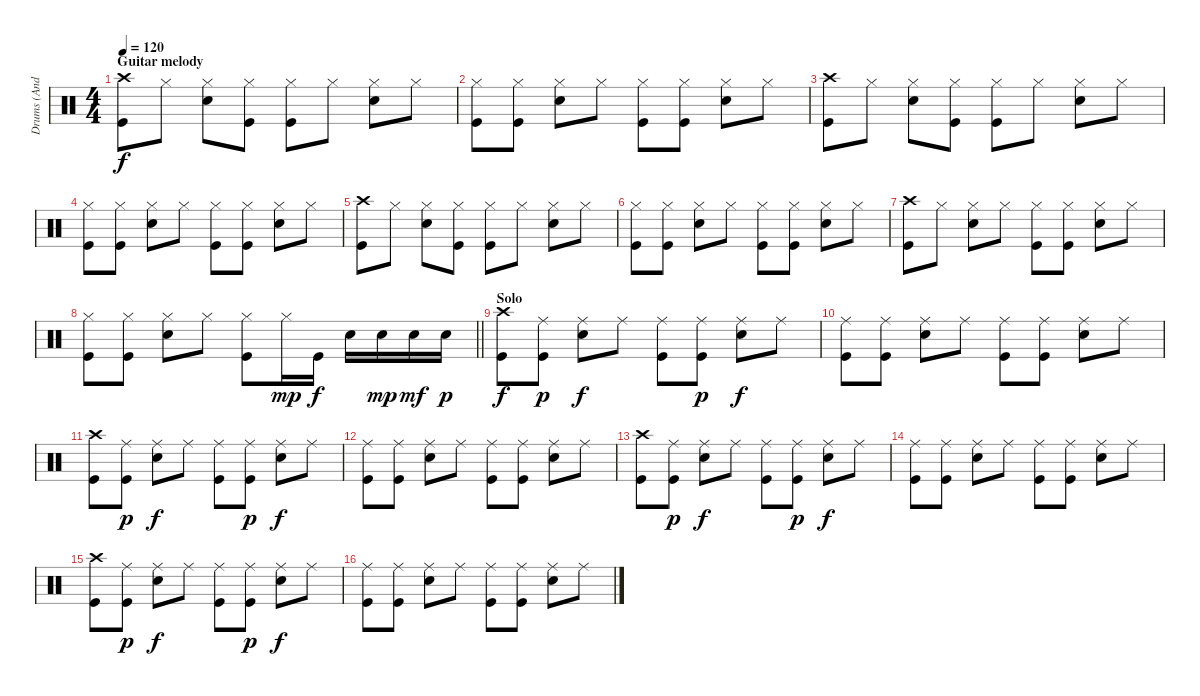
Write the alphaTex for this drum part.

\track ("Drums (Andy Parker)" "Drums (And") {instrument percussion}
\staff {score}
\articulation defaults
\ts (4 4)
\section ("" "Guitar melody")
\tempo 120
\clef neutral
\ks c
("Crash high (hit)" "Kick (hit)").8{dy f} "Hi-Hat (closed)".8 ("Hi-Hat (closed)" "Electric Snare (hit)").8 ("Hi-Hat (closed)" "Kick (hit)").8 ("Hi-Hat (closed)" "Kick (hit)").8 "Hi-Hat (closed)".8 ("Hi-Hat (closed)" "Electric Snare (hit)").8 "Hi-Hat (closed)".8 |
("Hi-Hat (closed)" "Kick (hit)").8 ("Hi-Hat (closed)" "Kick (hit)").8 ("Hi-Hat (closed)" "Electric Snare (hit)").8 "Hi-Hat (closed)".8 ("Hi-Hat (closed)" "Kick (hit)").8 ("Hi-Hat (closed)" "Kick (hit)").8 ("Hi-Hat (closed)" "Electric Snare (hit)").8 "Hi-Hat (closed)".8 |
("Crash high (hit)" "Kick (hit)").8 "Hi-Hat (closed)".8 ("Hi-Hat (closed)" "Electric Snare (hit)").8 ("Hi-Hat (closed)" "Kick (hit)").8 ("Hi-Hat (closed)" "Kick (hit)").8 "Hi-Hat (closed)".8 ("Hi-Hat (closed)" "Electric Snare (hit)").8 "Hi-Hat (closed)".8 |
("Hi-Hat (closed)" "Kick (hit)").8 ("Hi-Hat (closed)" "Kick (hit)").8 ("Hi-Hat (closed)" "Electric Snare (hit)").8 "Hi-Hat (closed)".8 ("Hi-Hat (closed)" "Kick (hit)").8 ("Hi-Hat (closed)" "Kick (hit)").8 ("Hi-Hat (closed)" "Electric Snare (hit)").8 "Hi-Hat (closed)".8 |
("Crash high (hit)" "Kick (hit)").8 "Hi-Hat (closed)".8 ("Hi-Hat (closed)" "Electric Snare (hit)").8 ("Hi-Hat (closed)" "Kick (hit)").8 ("Hi-Hat (closed)" "Kick (hit)").8 "Hi-Hat (closed)".8 ("Hi-Hat (closed)" "Electric Snare (hit)").8 "Hi-Hat (closed)".8 |
("Hi-Hat (closed)" "Kick (hit)").8 ("Hi-Hat (closed)" "Kick (hit)").8 ("Hi-Hat (closed)" "Electric Snare (hit)").8 "Hi-Hat (closed)".8 ("Hi-Hat (closed)" "Kick (hit)").8 ("Hi-Hat (closed)" "Kick (hit)").8 ("Hi-Hat (closed)" "Electric Snare (hit)").8 "Hi-Hat (closed)".8 |
("Crash high (hit)" "Kick (hit)").8 "Hi-Hat (closed)".8 ("Hi-Hat (closed)" "Electric Snare (hit)").8 "Hi-Hat (closed)".8 ("Hi-Hat (closed)" "Kick (hit)").8 ("Hi-Hat (closed)" "Kick (hit)").8 ("Hi-Hat (closed)" "Electric Snare (hit)").8 "Hi-Hat (closed)".8 |
\barLineRight lightlight
("Hi-Hat (closed)" "Kick (hit)").8 ("Hi-Hat (closed)" "Kick (hit)").8 ("Hi-Hat (closed)" "Electric Snare (hit)").8 "Hi-Hat (closed)".8 ("Hi-Hat (closed)" "Kick (hit)").8 "Hi-Hat (closed)".16{dy mp} "Kick (hit)".16{dy f} "Electric Snare (hit)".16 "Electric Snare (hit)".16{dy mp} "Electric Snare (hit)".16{dy mf} "Electric Snare (hit)".16{dy p} |
\section ("" "Solo")
("Crash high (hit)" "Kick (hit)").8{dy f} ("Ride (middle)" "Kick (hit)").8{dy p} ("Ride (middle)" "Electric Snare (hit)").8{dy f} "Ride (middle)".8 ("Ride (middle)" "Kick (hit)").8 ("Ride (middle)" "Kick (hit)").8{dy p} ("Ride (middle)" "Electric Snare (hit)").8{dy f} "Ride (middle)".8 |
("Ride (middle)" "Kick (hit)").8 ("Ride (middle)" "Kick (hit)").8 ("Ride (middle)" "Electric Snare (hit)").8 "Ride (middle)".8 ("Ride (middle)" "Kick (hit)").8 ("Ride (middle)" "Kick (hit)").8 ("Ride (middle)" "Electric Snare (hit)").8 "Ride (middle)".8 |
("Crash high (hit)" "Kick (hit)").8 ("Ride (middle)" "Kick (hit)").8{dy p} ("Ride (middle)" "Electric Snare (hit)").8{dy f} "Ride (middle)".8 ("Ride (middle)" "Kick (hit)").8 ("Ride (middle)" "Kick (hit)").8{dy p} ("Ride (middle)" "Electric Snare (hit)").8{dy f} "Ride (middle)".8 |
("Ride (middle)" "Kick (hit)").8 ("Ride (middle)" "Kick (hit)").8 ("Ride (middle)" "Electric Snare (hit)").8 "Ride (middle)".8 ("Ride (middle)" "Kick (hit)").8 ("Ride (middle)" "Kick (hit)").8 ("Ride (middle)" "Electric Snare (hit)").8 "Ride (middle)".8 |
("Crash high (hit)" "Kick (hit)").8 ("Ride (middle)" "Kick (hit)").8{dy p} ("Ride (middle)" "Electric Snare (hit)").8{dy f} "Ride (middle)".8 ("Ride (middle)" "Kick (hit)").8 ("Ride (middle)" "Kick (hit)").8{dy p} ("Ride (middle)" "Electric Snare (hit)").8{dy f} "Ride (middle)".8 |
("Ride (middle)" "Kick (hit)").8 ("Ride (middle)" "Kick (hit)").8 ("Ride (middle)" "Electric Snare (hit)").8 "Ride (middle)".8 ("Ride (middle)" "Kick (hit)").8 ("Ride (middle)" "Kick (hit)").8 ("Ride (middle)" "Electric Snare (hit)").8 "Ride (middle)".8 |
("Crash high (hit)" "Kick (hit)").8 ("Ride (middle)" "Kick (hit)").8{dy p} ("Ride (middle)" "Electric Snare (hit)").8{dy f} "Ride (middle)".8 ("Ride (middle)" "Kick (hit)").8 ("Ride (middle)" "Kick (hit)").8{dy p} ("Ride (middle)" "Electric Snare (hit)").8{dy f} "Ride (middle)".8 |
("Ride (middle)" "Kick (hit)").8 ("Ride (middle)" "Kick (hit)").8 ("Ride (middle)" "Electric Snare (hit)").8 "Ride (middle)".8 ("Ride (middle)" "Kick (hit)").8 ("Ride (middle)" "Kick (hit)").8 ("Ride (middle)" "Electric Snare (hit)").8 "Ride (middle)".8
